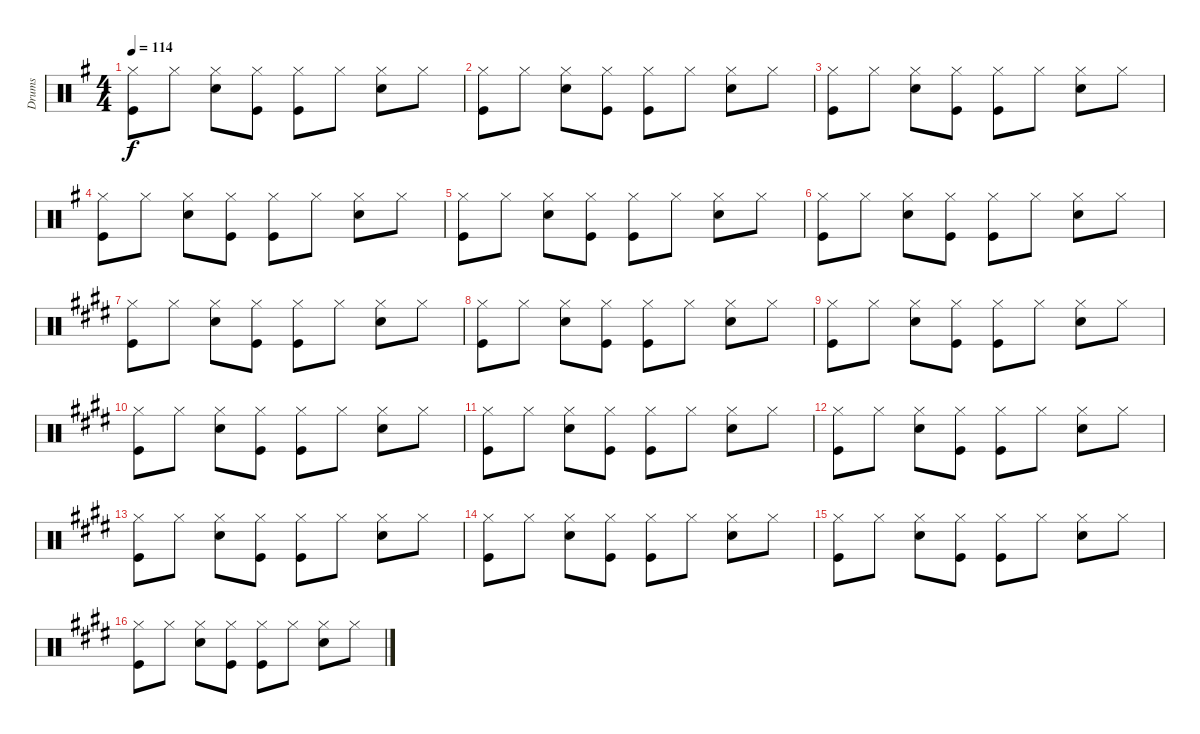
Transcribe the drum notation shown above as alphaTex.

\track ("Drums" "Drums") {instrument percussion}
\staff {score}
\articulation defaults
\ts (4 4)
\tempo 114
\clef neutral
\ks g
("Hi-Hat (closed)" "Kick (hit)").8{dy f} "Hi-Hat (closed)".8 ("Snare (hit) 2" "Hi-Hat (closed)").8 ("Hi-Hat (closed)" "Kick (hit)").8 ("Hi-Hat (closed)" "Kick (hit)").8 "Hi-Hat (closed)".8 ("Hi-Hat (closed)" "Snare (hit) 2").8 "Hi-Hat (closed)".8 |
("Hi-Hat (closed)" "Kick (hit)").8 "Hi-Hat (closed)".8 ("Snare (hit) 2" "Hi-Hat (closed)").8 ("Hi-Hat (closed)" "Kick (hit)").8 ("Hi-Hat (closed)" "Kick (hit)").8 "Hi-Hat (closed)".8 ("Hi-Hat (closed)" "Snare (hit) 2").8 "Hi-Hat (closed)".8 |
("Hi-Hat (closed)" "Kick (hit)").8 "Hi-Hat (closed)".8 ("Snare (hit) 2" "Hi-Hat (closed)").8 ("Hi-Hat (closed)" "Kick (hit)").8 ("Hi-Hat (closed)" "Kick (hit)").8 "Hi-Hat (closed)".8 ("Hi-Hat (closed)" "Snare (hit) 2").8 "Hi-Hat (closed)".8 |
("Hi-Hat (closed)" "Kick (hit)").8 "Hi-Hat (closed)".8 ("Snare (hit) 2" "Hi-Hat (closed)").8 ("Hi-Hat (closed)" "Kick (hit)").8 ("Hi-Hat (closed)" "Kick (hit)").8 "Hi-Hat (closed)".8 ("Hi-Hat (closed)" "Snare (hit) 2").8 "Hi-Hat (closed)".8 |
("Hi-Hat (closed)" "Kick (hit)").8 "Hi-Hat (closed)".8 ("Snare (hit) 2" "Hi-Hat (closed)").8 ("Hi-Hat (closed)" "Kick (hit)").8 ("Hi-Hat (closed)" "Kick (hit)").8 "Hi-Hat (closed)".8 ("Hi-Hat (closed)" "Snare (hit) 2").8 "Hi-Hat (closed)".8 |
("Hi-Hat (closed)" "Kick (hit)").8 "Hi-Hat (closed)".8 ("Snare (hit) 2" "Hi-Hat (closed)").8 ("Hi-Hat (closed)" "Kick (hit)").8 ("Hi-Hat (closed)" "Kick (hit)").8 "Hi-Hat (closed)".8 ("Hi-Hat (closed)" "Snare (hit) 2").8 "Hi-Hat (closed)".8 |
\ks e
("Hi-Hat (closed)" "Kick (hit)").8 "Hi-Hat (closed)".8 ("Snare (hit) 2" "Hi-Hat (closed)").8 ("Hi-Hat (closed)" "Kick (hit)").8 ("Hi-Hat (closed)" "Kick (hit)").8 "Hi-Hat (closed)".8 ("Hi-Hat (closed)" "Snare (hit) 2").8 "Hi-Hat (closed)".8 |
("Hi-Hat (closed)" "Kick (hit)").8 "Hi-Hat (closed)".8 ("Snare (hit) 2" "Hi-Hat (closed)").8 ("Hi-Hat (closed)" "Kick (hit)").8 ("Hi-Hat (closed)" "Kick (hit)").8 "Hi-Hat (closed)".8 ("Hi-Hat (closed)" "Snare (hit) 2").8 "Hi-Hat (closed)".8 |
("Hi-Hat (closed)" "Kick (hit)").8 "Hi-Hat (closed)".8 ("Snare (hit) 2" "Hi-Hat (closed)").8 ("Hi-Hat (closed)" "Kick (hit)").8 ("Hi-Hat (closed)" "Kick (hit)").8 "Hi-Hat (closed)".8 ("Hi-Hat (closed)" "Snare (hit) 2").8 "Hi-Hat (closed)".8 |
("Hi-Hat (closed)" "Kick (hit)").8 "Hi-Hat (closed)".8 ("Snare (hit) 2" "Hi-Hat (closed)").8 ("Hi-Hat (closed)" "Kick (hit)").8 ("Hi-Hat (closed)" "Kick (hit)").8 "Hi-Hat (closed)".8 ("Hi-Hat (closed)" "Snare (hit) 2").8 "Hi-Hat (closed)".8 |
("Hi-Hat (closed)" "Kick (hit)").8 "Hi-Hat (closed)".8 ("Snare (hit) 2" "Hi-Hat (closed)").8 ("Hi-Hat (closed)" "Kick (hit)").8 ("Hi-Hat (closed)" "Kick (hit)").8 "Hi-Hat (closed)".8 ("Hi-Hat (closed)" "Snare (hit) 2").8 "Hi-Hat (closed)".8 |
("Hi-Hat (closed)" "Kick (hit)").8 "Hi-Hat (closed)".8 ("Snare (hit) 2" "Hi-Hat (closed)").8 ("Hi-Hat (closed)" "Kick (hit)").8 ("Hi-Hat (closed)" "Kick (hit)").8 "Hi-Hat (closed)".8 ("Hi-Hat (closed)" "Snare (hit) 2").8 "Hi-Hat (closed)".8 |
("Hi-Hat (closed)" "Kick (hit)").8 "Hi-Hat (closed)".8 ("Snare (hit) 2" "Hi-Hat (closed)").8 ("Hi-Hat (closed)" "Kick (hit)").8 ("Hi-Hat (closed)" "Kick (hit)").8 "Hi-Hat (closed)".8 ("Hi-Hat (closed)" "Snare (hit) 2").8 "Hi-Hat (closed)".8 |
("Hi-Hat (closed)" "Kick (hit)").8 "Hi-Hat (closed)".8 ("Snare (hit) 2" "Hi-Hat (closed)").8 ("Hi-Hat (closed)" "Kick (hit)").8 ("Hi-Hat (closed)" "Kick (hit)").8 "Hi-Hat (closed)".8 ("Hi-Hat (closed)" "Snare (hit) 2").8 "Hi-Hat (closed)".8 |
("Hi-Hat (closed)" "Kick (hit)").8 "Hi-Hat (closed)".8 ("Snare (hit) 2" "Hi-Hat (closed)").8 ("Hi-Hat (closed)" "Kick (hit)").8 ("Hi-Hat (closed)" "Kick (hit)").8 "Hi-Hat (closed)".8 ("Hi-Hat (closed)" "Snare (hit) 2").8 "Hi-Hat (closed)".8 |
("Hi-Hat (closed)" "Kick (hit)").8 "Hi-Hat (closed)".8 ("Snare (hit) 2" "Hi-Hat (closed)").8 ("Hi-Hat (closed)" "Kick (hit)").8 ("Hi-Hat (closed)" "Kick (hit)").8 "Hi-Hat (closed)".8 ("Hi-Hat (closed)" "Snare (hit) 2").8 "Hi-Hat (closed)".8
